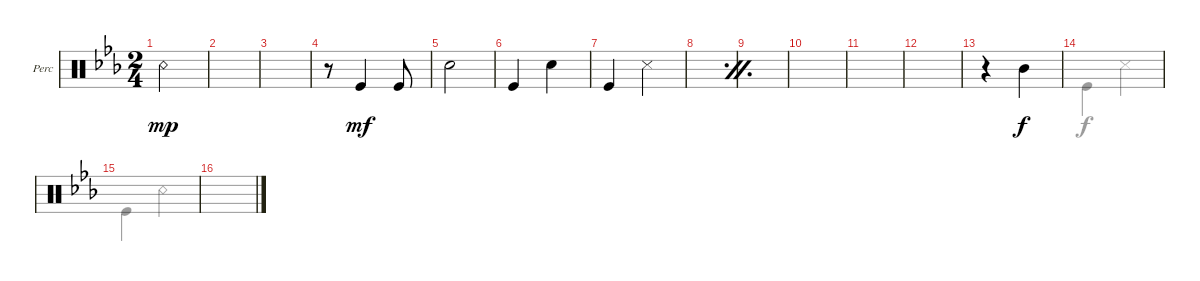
\defaultSystemsLayout 4
\bracketExtendMode groupsimilarinstruments
\firstSystemTrackNameOrientation horizontal
\otherSystemsTrackNameOrientation horizontal
\track ("Body Percussion" "Perc") {instrument percussion}
\staff {score}
\articulation defaults
\voice
\ts (2 4)
\tempo (200 hide)
\clef neutral
\ks cminor "Snare (rim shot)".2{dy mp}
|
\scale
0.285464 |
\scale
0.191118 |
\scale
0.250319 r.8 "Kick (hit)".4{dy mf} "Kick (hit)".8 |
\scale
0.273205 "Snare (hit) 2".2 |
\scale
0.407785 "Kick (hit)".4 "Snare (hit) 2".4 |
\scale
0.355136 "Kick (hit)".4 "Snare (side stick) 3".4 |
\scale
0.118547
\simile firstofdouble
|
\scale
0.118547
\simile secondofdouble
|
\scale
0.283582
\simile none
|
\scale
0.213906 |
\scale
0.237267 |
\scale
0.26534 r.4 "Mid Tom (hit)".4{dy f} |
|
|
\simile firstofdouble
\voice
\clef neutral
\ottava regular
\simile none
\ks cminor
|
|
|
|
|
|
|
\simile firstofdouble
|
\simile secondofdouble
|
\simile none
|
|
|
|
"Kick (hit)".4{dy f} "Snare (side stick) 3".4 |
"Kick (hit)".4 "Snare (rim shot)".4 |
\simile firstofdouble
